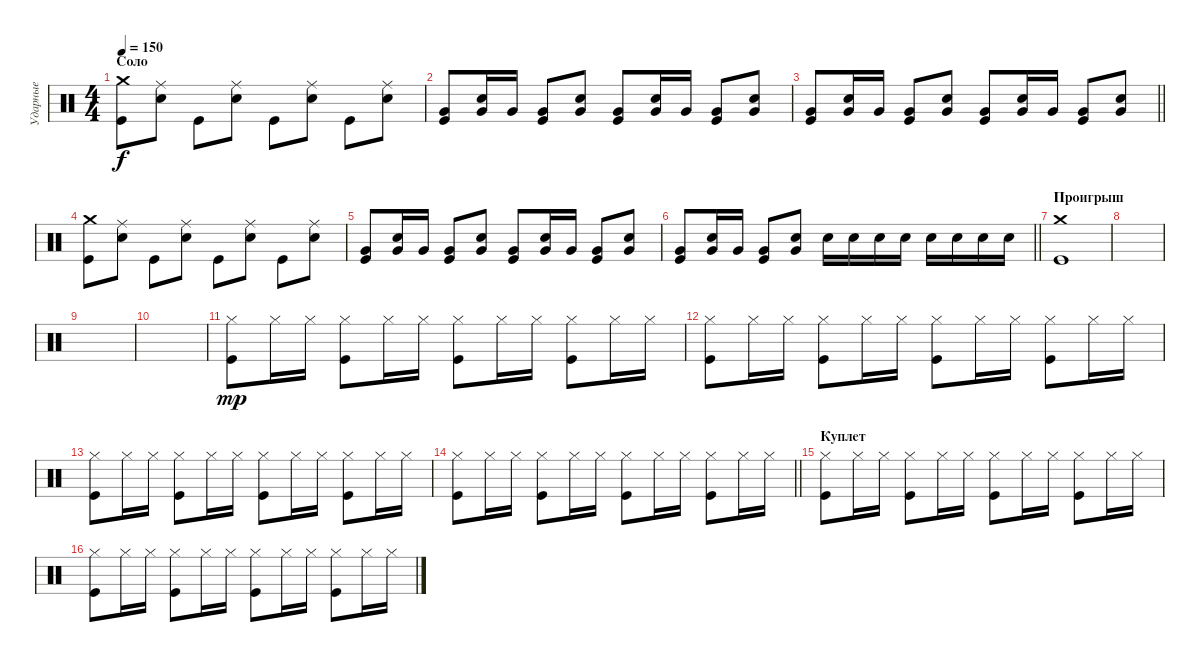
\track ("Ударные" "Ударные") {instrument percussion}
\staff {score}
\articulation defaults
\ts (4 4)
\section ("" "Соло")
\tempo 150
\clef neutral
\ks c
("Crash medium (hit)" "Kick (hit)").8{dy f} ("Ride (middle)" "Electric Snare (hit)").8 "Kick (hit)".8 ("Ride (middle)" "Electric Snare (hit)").8 "Kick (hit)".8 ("Ride (middle)" "Electric Snare (hit)").8 "Kick (hit)".8 ("Ride (middle)" "Electric Snare (hit)").8 |
("Very Low Tom (hit)" "Kick (hit)").8 ("Very Low Tom (hit)" "Electric Snare (hit)").16 "Very Low Tom (hit)".16 ("Very Low Tom (hit)" "Kick (hit)").8 ("Very Low Tom (hit)" "Electric Snare (hit)").8 ("Very Low Tom (hit)" "Kick (hit)").8 ("Very Low Tom (hit)" "Electric Snare (hit)").16 "Very Low Tom (hit)".16 ("Very Low Tom (hit)" "Kick (hit)").8 ("Very Low Tom (hit)" "Electric Snare (hit)").8 |
\barLineRight lightlight
("Very Low Tom (hit)" "Kick (hit)").8 ("Very Low Tom (hit)" "Electric Snare (hit)").16 "Very Low Tom (hit)".16 ("Very Low Tom (hit)" "Kick (hit)").8 ("Very Low Tom (hit)" "Electric Snare (hit)").8 ("Very Low Tom (hit)" "Kick (hit)").8 ("Very Low Tom (hit)" "Electric Snare (hit)").16 "Very Low Tom (hit)".16 ("Very Low Tom (hit)" "Kick (hit)").8 ("Very Low Tom (hit)" "Electric Snare (hit)").8 |
("Crash medium (hit)" "Kick (hit)").8 ("Ride (middle)" "Electric Snare (hit)").8 "Kick (hit)".8 ("Ride (middle)" "Electric Snare (hit)").8 "Kick (hit)".8 ("Ride (middle)" "Electric Snare (hit)").8 "Kick (hit)".8 ("Ride (middle)" "Electric Snare (hit)").8 |
("Very Low Tom (hit)" "Kick (hit)").8 ("Very Low Tom (hit)" "Electric Snare (hit)").16 "Very Low Tom (hit)".16 ("Very Low Tom (hit)" "Kick (hit)").8 ("Very Low Tom (hit)" "Electric Snare (hit)").8 ("Very Low Tom (hit)" "Kick (hit)").8 ("Very Low Tom (hit)" "Electric Snare (hit)").16 "Very Low Tom (hit)".16 ("Very Low Tom (hit)" "Kick (hit)").8 ("Very Low Tom (hit)" "Electric Snare (hit)").8 |
\barLineRight lightlight
("Very Low Tom (hit)" "Kick (hit)").8 ("Very Low Tom (hit)" "Electric Snare (hit)").16 "Very Low Tom (hit)".16 ("Very Low Tom (hit)" "Kick (hit)").8 ("Very Low Tom (hit)" "Electric Snare (hit)").8 "Electric Snare (hit)".16 "Electric Snare (hit)".16 "Electric Snare (hit)".16 "Electric Snare (hit)".16 "Electric Snare (hit)".16 "Electric Snare (hit)".16 "Electric Snare (hit)".16 "Electric Snare (hit)".16 |
\section ("" "Проигрыш")
("Crash medium (hit)" "Kick (hit)").1 |
|
|
|
("Hi-Hat (closed)" "Kick (hit)").8{dy mp} "Hi-Hat (closed)".16 "Hi-Hat (closed)".16 ("Hi-Hat (closed)" "Kick (hit)").8 "Hi-Hat (closed)".16 "Hi-Hat (closed)".16 ("Hi-Hat (closed)" "Kick (hit)").8 "Hi-Hat (closed)".16 "Hi-Hat (closed)".16 ("Hi-Hat (closed)" "Kick (hit)").8 "Hi-Hat (closed)".16 "Hi-Hat (closed)".16 |
("Hi-Hat (closed)" "Kick (hit)").8 "Hi-Hat (closed)".16 "Hi-Hat (closed)".16 ("Hi-Hat (closed)" "Kick (hit)").8 "Hi-Hat (closed)".16 "Hi-Hat (closed)".16 ("Hi-Hat (closed)" "Kick (hit)").8 "Hi-Hat (closed)".16 "Hi-Hat (closed)".16 ("Hi-Hat (closed)" "Kick (hit)").8 "Hi-Hat (closed)".16 "Hi-Hat (closed)".16 |
("Hi-Hat (closed)" "Kick (hit)").8 "Hi-Hat (closed)".16 "Hi-Hat (closed)".16 ("Hi-Hat (closed)" "Kick (hit)").8 "Hi-Hat (closed)".16 "Hi-Hat (closed)".16 ("Hi-Hat (closed)" "Kick (hit)").8 "Hi-Hat (closed)".16 "Hi-Hat (closed)".16 ("Hi-Hat (closed)" "Kick (hit)").8 "Hi-Hat (closed)".16 "Hi-Hat (closed)".16 |
\barLineRight lightlight
("Hi-Hat (closed)" "Kick (hit)").8 "Hi-Hat (closed)".16 "Hi-Hat (closed)".16 ("Hi-Hat (closed)" "Kick (hit)").8 "Hi-Hat (closed)".16 "Hi-Hat (closed)".16 ("Hi-Hat (closed)" "Kick (hit)").8 "Hi-Hat (closed)".16 "Hi-Hat (closed)".16 ("Hi-Hat (closed)" "Kick (hit)").8 "Hi-Hat (closed)".16 "Hi-Hat (closed)".16 |
\section ("" "Куплет")
("Hi-Hat (closed)" "Kick (hit)").8 "Hi-Hat (closed)".16 "Hi-Hat (closed)".16 ("Hi-Hat (closed)" "Kick (hit)").8 "Hi-Hat (closed)".16 "Hi-Hat (closed)".16 ("Hi-Hat (closed)" "Kick (hit)").8 "Hi-Hat (closed)".16 "Hi-Hat (closed)".16 ("Hi-Hat (closed)" "Kick (hit)").8 "Hi-Hat (closed)".16 "Hi-Hat (closed)".16 |
("Hi-Hat (closed)" "Kick (hit)").8 "Hi-Hat (closed)".16 "Hi-Hat (closed)".16 ("Hi-Hat (closed)" "Kick (hit)").8 "Hi-Hat (closed)".16 "Hi-Hat (closed)".16 ("Hi-Hat (closed)" "Kick (hit)").8 "Hi-Hat (closed)".16 "Hi-Hat (closed)".16 ("Hi-Hat (closed)" "Kick (hit)").8 "Hi-Hat (closed)".16 "Hi-Hat (closed)".16
